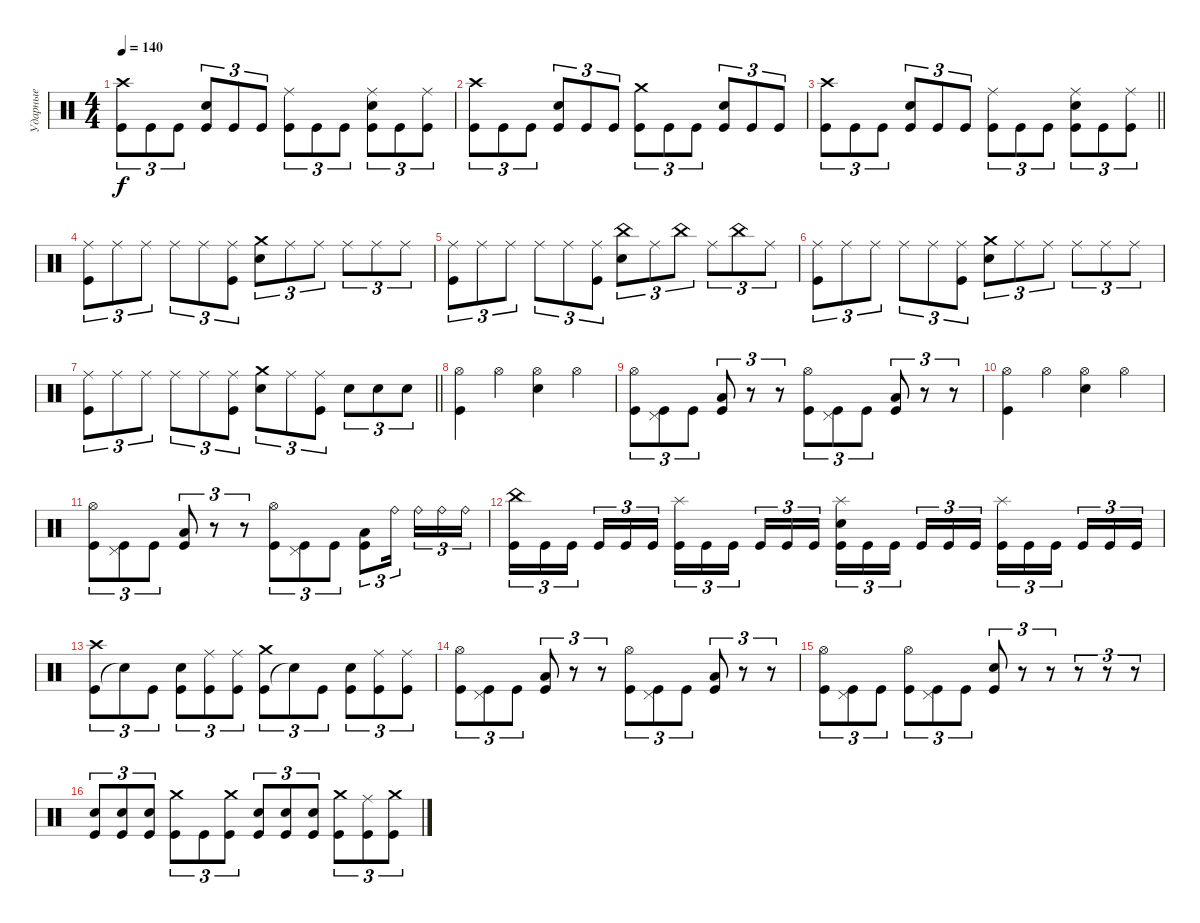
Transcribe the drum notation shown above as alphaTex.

\track ("Ударные" "Ударные") {instrument percussion}
\staff {score}
\articulation defaults
\ts (4 4)
\tempo 140
\clef neutral
\ks c
("Kick (hit)" "Crash high (hit)").8{tu (3 2) dy f} "Kick (hit)".8{tu (3 2)} "Kick (hit)".8{tu (3 2)} ("Kick (hit)" "Electric Snare (hit)").8{tu (3 2)} "Kick (hit)".8{tu (3 2)} "Kick (hit)".8{tu (3 2)} ("Kick (hit)" "Ride (middle)").8{tu (3 2)} "Kick (hit)".8{tu (3 2)} "Kick (hit)".8{tu (3 2)} ("Kick (hit)" "Electric Snare (hit)" "Ride (middle)").8{tu (3 2)} "Kick (hit)".8{tu (3 2)} ("Kick (hit)" "Ride (middle)").8{tu (3 2)} |
("Kick (hit)" "Crash high (hit)").8{tu (3 2)} "Kick (hit)".8{tu (3 2)} "Kick (hit)".8{tu (3 2)} ("Kick (hit)" "Electric Snare (hit)").8{tu (3 2)} "Kick (hit)".8{tu (3 2)} "Kick (hit)".8{tu (3 2)} ("Kick (hit)" "Crash medium (hit)").8{tu (3 2)} "Kick (hit)".8{tu (3 2)} "Kick (hit)".8{tu (3 2)} ("Kick (hit)" "Electric Snare (hit)").8{tu (3 2)} "Kick (hit)".8{tu (3 2)} "Kick (hit)".8{tu (3 2)} |
\barLineRight lightlight
("Kick (hit)" "Crash high (hit)").8{tu (3 2)} "Kick (hit)".8{tu (3 2)} "Kick (hit)".8{tu (3 2)} ("Kick (hit)" "Electric Snare (hit)").8{tu (3 2)} "Kick (hit)".8{tu (3 2)} "Kick (hit)".8{tu (3 2)} ("Kick (hit)" "Ride (middle)").8{tu (3 2)} "Kick (hit)".8{tu (3 2)} "Kick (hit)".8{tu (3 2)} ("Kick (hit)" "Electric Snare (hit)" "Ride (middle)").8{tu (3 2)} "Kick (hit)".8{tu (3 2)} ("Kick (hit)" "Ride (middle)").8{tu (3 2)} |
\section ("" " ")
("Kick (hit)" "Ride (middle)").8{tu (3 2)} "Ride (middle)".8{tu (3 2)} "Ride (middle)".8{tu (3 2)} "Ride (middle)".8{tu (3 2)} "Ride (middle)".8{tu (3 2)} ("Kick (hit)" "Ride (middle)").8{tu (3 2)} ("Electric Snare (hit)" "Crash medium (hit)").8{tu (3 2)} "Ride (middle)".8{tu (3 2)} "Ride (middle)".8{tu (3 2)} "Ride (middle)".8{tu (3 2)} "Ride (middle)".8{tu (3 2)} "Ride (middle)".8{tu (3 2)} |
("Kick (hit)" "Ride (middle)").8{tu (3 2)} "Ride (middle)".8{tu (3 2)} "Ride (middle)".8{tu (3 2)} "Ride (middle)".8{tu (3 2)} "Ride (middle)".8{tu (3 2)} ("Kick (hit)" "Ride (middle)").8{tu (3 2)} ("China (hit)" "Electric Snare (hit)").8{tu (3 2)} "Ride (middle)".8{tu (3 2)} "China (hit)".8{tu (3 2)} "Ride (middle)".8{tu (3 2)} "China (hit)".8{tu (3 2)} "Ride (middle)".8{tu (3 2)} |
("Kick (hit)" "Ride (middle)").8{tu (3 2)} "Ride (middle)".8{tu (3 2)} "Ride (middle)".8{tu (3 2)} "Ride (middle)".8{tu (3 2)} "Ride (middle)".8{tu (3 2)} ("Kick (hit)" "Ride (middle)").8{tu (3 2)} ("Electric Snare (hit)" "Crash medium (hit)").8{tu (3 2)} "Ride (middle)".8{tu (3 2)} "Ride (middle)".8{tu (3 2)} "Ride (middle)".8{tu (3 2)} "Ride (middle)".8{tu (3 2)} "Ride (middle)".8{tu (3 2)} |
\barLineRight lightlight
("Kick (hit)" "Ride (middle)").8{tu (3 2)} "Ride (middle)".8{tu (3 2)} "Ride (middle)".8{tu (3 2)} "Ride (middle)".8{tu (3 2)} "Ride (middle)".8{tu (3 2)} ("Kick (hit)" "Ride (middle)").8{tu (3 2)} ("Electric Snare (hit)" "Crash medium (hit)").8{tu (3 2)} "Ride (middle)".8{tu (3 2)} ("Kick (hit)" "Ride (middle)").8{tu (3 2)} "Electric Snare (hit)".8{tu (3 2)} "Electric Snare (hit)".8{tu (3 2)} "Electric Snare (hit)".8{tu (3 2)} |
\section ("" " ")
("Hi-Hat (open)" "Kick (hit)").4 "Hi-Hat (open)".4 ("Hi-Hat (open)" "Electric Snare (hit)").4 "Hi-Hat (open)".4 |
("Hi-Hat (open)" "Kick (hit)").8{tu (3 2)} ("Pedal Hi-Hat (hit)" "Kick (hit)").8{tu (3 2)} "Kick (hit)".8{tu (3 2)} ("Low Floor Tom (hit)" "Kick (hit)").8{tu (3 2)} r.8{tu (3 2)} r.8{tu (3 2)} ("Hi-Hat (open)" "Kick (hit)").8{tu (3 2)} ("Pedal Hi-Hat (hit)" "Kick (hit)").8{tu (3 2)} "Kick (hit)".8{tu (3 2)} ("Low Floor Tom (hit)" "Kick (hit)").8{tu (3 2)} r.8{tu (3 2)} r.8{tu (3 2)} |
("Hi-Hat (open)" "Kick (hit)").4 "Hi-Hat (open)".4 ("Hi-Hat (open)" "Electric Snare (hit)").4 "Hi-Hat (open)".4 |
("Hi-Hat (open)" "Kick (hit)").8{tu (3 2)} ("Pedal Hi-Hat (hit)" "Kick (hit)").8{tu (3 2)} "Kick (hit)".8{tu (3 2)} ("Low Floor Tom (hit)" "Kick (hit)").8{tu (3 2)} r.8{tu (3 2)} r.8{tu (3 2)} ("Hi-Hat (open)" "Kick (hit)").8{tu (3 2)} ("Pedal Hi-Hat (hit)" "Kick (hit)").8{tu (3 2)} "Kick (hit)".8{tu (3 2)} ("Low Floor Tom (hit)" "Kick (hit)").8{tu (3 2)} "Ride (bell)".16{tu (3 2) beam splitsecondary} "Ride (bell)".16{tu (3 2)} "Ride (bell)".16{tu (3 2)} "Ride (bell)".16{tu (3 2)} |
("Kick (hit)" "China (hit)").16{tu (3 2)} "Kick (hit)".16{tu (3 2)} "Kick (hit)".16{tu (3 2) beam splitsecondary} "Kick (hit)".16{tu (3 2)} "Kick (hit)".16{tu (3 2)} "Kick (hit)".16{tu (3 2)} ("Kick (hit)" "Splash (hit)").16{tu (3 2)} "Kick (hit)".16{tu (3 2)} "Kick (hit)".16{tu (3 2) beam splitsecondary} "Kick (hit)".16{tu (3 2)} "Kick (hit)".16{tu (3 2)} "Kick (hit)".16{tu (3 2)} ("Kick (hit)" "Electric Snare (hit)" "Splash (hit)").16{tu (3 2)} "Kick (hit)".16{tu (3 2)} "Kick (hit)".16{tu (3 2) beam splitsecondary} "Kick (hit)".16{tu (3 2)} "Kick (hit)".16{tu (3 2)} "Kick (hit)".16{tu (3 2)} ("Kick (hit)" "Splash (hit)").16{tu (3 2)} "Kick (hit)".16{tu (3 2)} "Kick (hit)".16{tu (3 2) beam splitsecondary} "Kick (hit)".16{tu (3 2)} "Kick (hit)".16{tu (3 2)} "Kick (hit)".16{tu (3 2)} |
("Kick (hit)" "Crash high (hit)").8{tu (3 2)} "Snare (hit)"{t}.8{tu (3 2)} "Kick (hit)".8{tu (3 2)} ("Kick (hit)" "Electric Snare (hit)").8{tu (3 2)} ("Kick (hit)" "Ride (middle)").8{tu (3 2)} ("Kick (hit)" "Ride (middle)").8{tu (3 2)} ("Kick (hit)" "Crash medium (hit)").8{tu (3 2)} "Snare (hit)"{t}.8{tu (3 2)} "Kick (hit)".8{tu (3 2)} ("Kick (hit)" "Electric Snare (hit)").8{tu (3 2)} ("Kick (hit)" "Ride (middle)").8{tu (3 2)} ("Kick (hit)" "Ride (middle)").8{tu (3 2)} |
("Hi-Hat (open)" "Kick (hit)").8{tu (3 2)} ("Pedal Hi-Hat (hit)" "Kick (hit)").8{tu (3 2)} "Kick (hit)".8{tu (3 2)} ("Low Floor Tom (hit)" "Kick (hit)").8{tu (3 2)} r.8{tu (3 2)} r.8{tu (3 2)} ("Hi-Hat (open)" "Kick (hit)").8{tu (3 2)} ("Pedal Hi-Hat (hit)" "Kick (hit)").8{tu (3 2)} "Kick (hit)".8{tu (3 2)} ("Low Floor Tom (hit)" "Kick (hit)").8{tu (3 2)} r.8{tu (3 2)} r.8{tu (3 2)} |
("Hi-Hat (open)" "Kick (hit)").8{tu (3 2)} ("Pedal Hi-Hat (hit)" "Kick (hit)").8{tu (3 2)} "Kick (hit)".8{tu (3 2)} ("Hi-Hat (open)" "Kick (hit)").8{tu (3 2)} ("Pedal Hi-Hat (hit)" "Kick (hit)").8{tu (3 2)} "Kick (hit)".8{tu (3 2)} ("Electric Snare (hit)" "Kick (hit)").8{tu (3 2)} r.8{tu (3 2)} r.8{tu (3 2)} r.8{tu (3 2)} r.8{tu (3 2)} r.8{tu (3 2)} |
("Electric Snare (hit)" "Kick (hit)").8{tu (3 2)} ("Electric Snare (hit)" "Kick (hit)").8{tu (3 2)} ("Electric Snare (hit)" "Kick (hit)").8{tu (3 2)} ("Crash medium (hit)" "Kick (hit)").8{tu (3 2)} "Kick (hit)".8{tu (3 2)} ("Crash medium (hit)" "Kick (hit)").8{tu (3 2)} ("Electric Snare (hit)" "Kick (hit)").8{tu (3 2)} ("Electric Snare (hit)" "Kick (hit)").8{tu (3 2)} ("Electric Snare (hit)" "Kick (hit)").8{tu (3 2)} ("Crash medium (hit)" "Kick (hit)").8{tu (3 2)} ("Ride (middle)" "Kick (hit)").8{tu (3 2)} ("Crash medium (hit)" "Kick (hit)").8{tu (3 2)}
